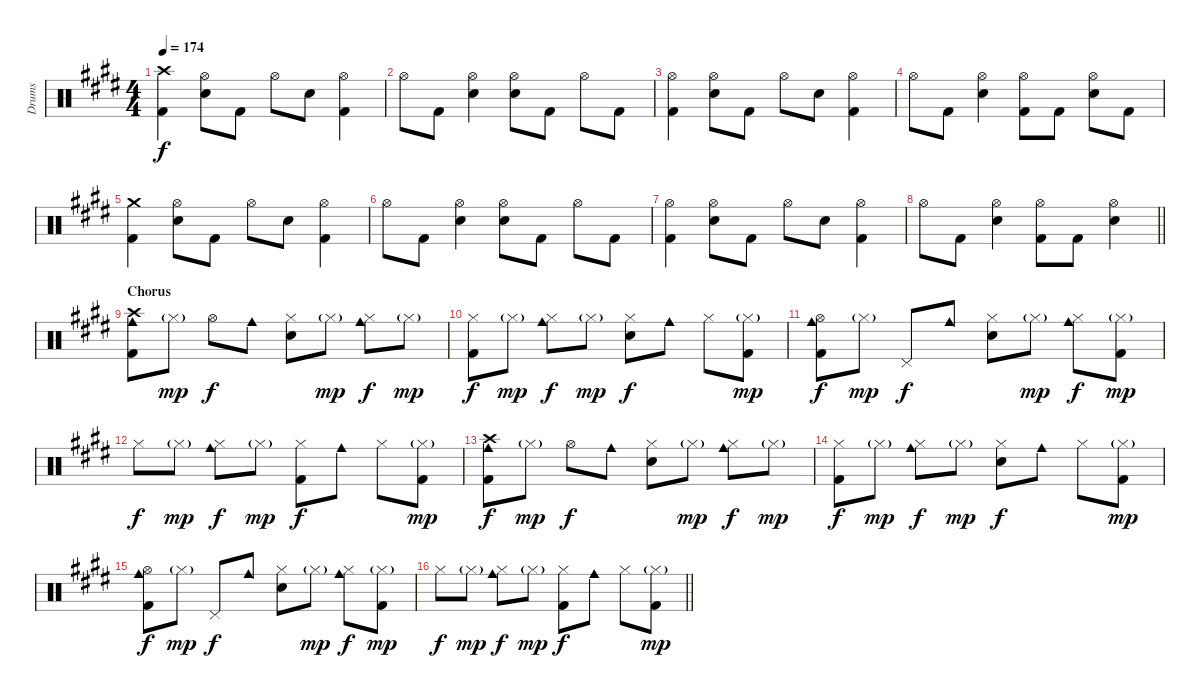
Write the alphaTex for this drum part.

\track ("Drums" "Drums") {instrument percussion bank 177}
\staff {score}
\articulation defaults
\ts (4 4)
\tempo 174
\clef neutral
\ks e
("Crash high (hit)" "Kick (hit) 2").4{dy f} ("Hi-Hat (open)" "Electric Snare (hit)").8 "Kick (hit) 2".8 "Hi-Hat (open)".8 "Electric Snare (hit)".8 ("Hi-Hat (open)" "Kick (hit) 2").4 |
"Hi-Hat (open)".8 "Kick (hit) 2".8 ("Hi-Hat (open)" "Electric Snare (hit)").4 ("Hi-Hat (open)" "Electric Snare (hit)").8 "Kick (hit) 2".8 "Hi-Hat (open)".8 "Kick (hit) 2".8 |
("Hi-Hat (open)" "Kick (hit) 2").4 ("Hi-Hat (open)" "Electric Snare (hit)").8 "Kick (hit) 2".8 "Hi-Hat (open)".8 "Electric Snare (hit)".8 ("Hi-Hat (open)" "Kick (hit) 2").4 |
"Hi-Hat (open)".8 "Kick (hit) 2".8 ("Hi-Hat (open)" "Electric Snare (hit)").4 ("Hi-Hat (open)" "Kick (hit) 2").8 "Kick (hit) 2".8 ("Hi-Hat (open)" "Electric Snare (hit)").8 "Kick (hit) 2".8 |
("Crash medium (hit)" "Kick (hit) 2").4 ("Hi-Hat (open)" "Electric Snare (hit)").8 "Kick (hit) 2".8 "Hi-Hat (open)".8 "Electric Snare (hit)".8 ("Hi-Hat (open)" "Kick (hit) 2").4 |
"Hi-Hat (open)".8 "Kick (hit) 2".8 ("Hi-Hat (open)" "Electric Snare (hit)").4 ("Hi-Hat (open)" "Electric Snare (hit)").8 "Kick (hit) 2".8 "Hi-Hat (open)".8 "Kick (hit) 2".8 |
("Hi-Hat (open)" "Kick (hit) 2").4 ("Hi-Hat (open)" "Electric Snare (hit)").8 "Kick (hit) 2".8 "Hi-Hat (open)".8 "Electric Snare (hit)".8 ("Hi-Hat (open)" "Kick (hit) 2").4 |
\barLineRight lightlight "Hi-Hat (open)".8 "Kick (hit) 2".8
("Hi-Hat (open)" "Electric Snare (hit)").4 ("Hi-Hat (open)" "Kick (hit) 2").8 "Kick (hit) 2".8 ("Hi-Hat (open)" "Electric Snare (hit)").4 |
\section ("" "Chorus")
("Crash high (hit)" "Kick (hit) 2" "Cowbell medium (hit)").8 "Hi-Hat (closed)"{g}.8{dy mp} "Hi-Hat (open)".8{dy f} "Cowbell medium (hit)".8 ("Hi-Hat (closed)" "Electric Snare (hit)").8 "Hi-Hat (closed)"{g}.8{dy mp} ("Hi-Hat (closed)" "Cowbell medium (hit)").8{dy f} "Hi-Hat (closed)"{g}.8{dy mp} |
("Hi-Hat (closed)" "Kick (hit) 2").8{dy f} "Hi-Hat (closed)"{g}.8{dy mp} ("Hi-Hat (closed)" "Cowbell medium (hit)").8{dy f} "Hi-Hat (closed)"{g}.8{dy mp} ("Hi-Hat (closed)" "Electric Snare (hit)").8{dy f} "Cowbell medium (hit)".8 "Hi-Hat (closed)".8 ("Hi-Hat (closed)"{g} "Kick (hit) 2").8{dy mp} |
("Hi-Hat (open)" "Kick (hit) 2" "Cowbell medium (hit)").8{dy f} "Hi-Hat (closed)"{g}.8{dy mp} "Pedal Hi-Hat (hit)".8{dy f} "Cowbell medium (hit)".8 ("Hi-Hat (closed)" "Electric Snare (hit)").8 "Hi-Hat (closed)"{g}.8{dy mp} ("Hi-Hat (closed)" "Cowbell medium (hit)").8{dy f} ("Hi-Hat (closed)"{g} "Kick (hit) 2").8{dy mp} |
"Hi-Hat (closed)".8{dy f} "Hi-Hat (closed)"{g}.8{dy mp} ("Hi-Hat (closed)" "Cowbell medium (hit)").8{dy f} "Hi-Hat (closed)"{g}.8{dy mp} ("Hi-Hat (closed)" "Kick (hit) 2").8{dy f} "Cowbell medium (hit)".8 "Hi-Hat (closed)".8 ("Hi-Hat (closed)"{g} "Kick (hit) 2").8{dy mp} |
("Crash high (hit)" "Kick (hit) 2" "Cowbell medium (hit)").8{dy f} "Hi-Hat (closed)"{g}.8{dy mp} "Hi-Hat (open)".8{dy f} "Cowbell medium (hit)".8 ("Hi-Hat (closed)" "Electric Snare (hit)").8 "Hi-Hat (closed)"{g}.8{dy mp} ("Hi-Hat (closed)" "Cowbell medium (hit)").8{dy f} "Hi-Hat (closed)"{g}.8{dy mp} |
("Hi-Hat (closed)" "Kick (hit) 2").8{dy f} "Hi-Hat (closed)"{g}.8{dy mp} ("Hi-Hat (closed)" "Cowbell medium (hit)").8{dy f} "Hi-Hat (closed)"{g}.8{dy mp} ("Hi-Hat (closed)" "Electric Snare (hit)").8{dy f} "Cowbell medium (hit)".8 "Hi-Hat (closed)".8 ("Hi-Hat (closed)"{g} "Kick (hit) 2").8{dy mp} |
("Hi-Hat (open)" "Kick (hit) 2" "Cowbell medium (hit)").8{dy f} "Hi-Hat (closed)"{g}.8{dy mp} "Pedal Hi-Hat (hit)".8{dy f} "Cowbell medium (hit)".8 ("Hi-Hat (closed)" "Electric Snare (hit)").8 "Hi-Hat (closed)"{g}.8{dy mp} ("Hi-Hat (closed)" "Cowbell medium (hit)").8{dy f} ("Hi-Hat (closed)"{g} "Kick (hit) 2").8{dy mp} |
\barLineRight lightlight "Hi-Hat (closed)".8{dy f} "Hi-Hat (closed)"{g}.8{dy mp}
("Hi-Hat (closed)" "Cowbell medium (hit)").8{dy f} "Hi-Hat (closed)"{g}.8{dy mp} ("Hi-Hat (closed)" "Kick (hit) 2").8{dy f} "Cowbell medium (hit)".8 "Hi-Hat (closed)".8 ("Hi-Hat (closed)"{g} "Kick (hit) 2").8{dy mp}
